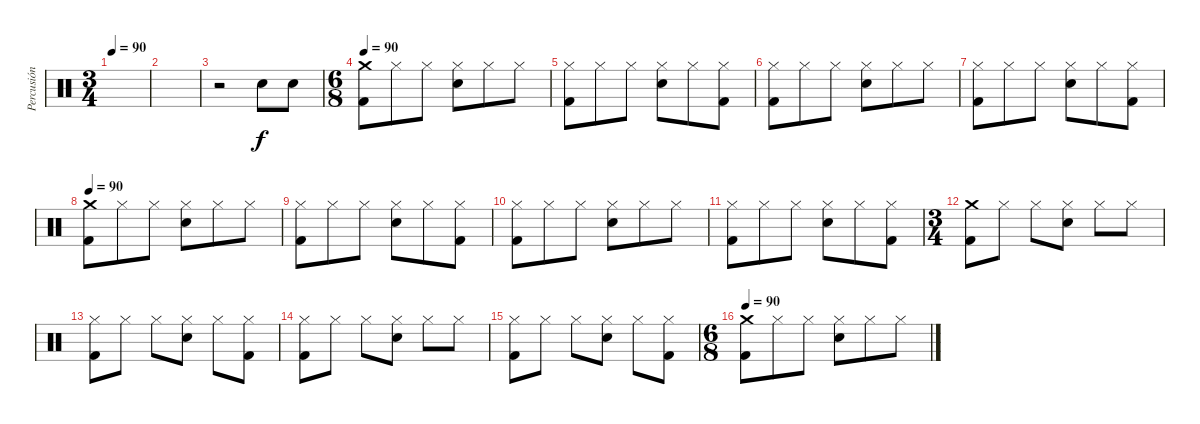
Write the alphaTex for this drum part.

\track ("Percusión" "Percusión") {instrument percussion}
\staff {score}
\articulation defaults
\ts (3 4)
\tempo 90
\clef neutral
\ks c
|
|
r.2 "Electric Snare (hit)".8 "Electric Snare (hit)".8 |
\ts (6 8)
\tempo 90
("Crash medium (hit)" "Kick (hit) 2").8 "Hi-Hat (closed)".8 "Hi-Hat (closed)".8 ("Hi-Hat (closed)" "Snare (hit) 2").8 "Hi-Hat (closed)".8 "Hi-Hat (closed)".8 |
("Hi-Hat (closed)" "Kick (hit) 2").8 "Hi-Hat (closed)".8 "Hi-Hat (closed)".8 ("Hi-Hat (closed)" "Snare (hit) 2").8 "Hi-Hat (closed)".8 ("Hi-Hat (closed)" "Kick (hit) 2").8 |
("Hi-Hat (closed)" "Kick (hit) 2").8 "Hi-Hat (closed)".8 "Hi-Hat (closed)".8 ("Hi-Hat (closed)" "Snare (hit) 2").8 "Hi-Hat (closed)".8 "Hi-Hat (closed)".8 |
("Hi-Hat (closed)" "Kick (hit) 2").8 "Hi-Hat (closed)".8 "Hi-Hat (closed)".8 ("Hi-Hat (closed)" "Snare (hit) 2").8 "Hi-Hat (closed)".8 ("Hi-Hat (closed)" "Kick (hit) 2").8 |
\tempo 90
("Crash medium (hit)" "Kick (hit) 2").8 "Hi-Hat (closed)".8 "Hi-Hat (closed)".8 ("Hi-Hat (closed)" "Snare (hit) 2").8 "Hi-Hat (closed)".8 "Hi-Hat (closed)".8 |
("Hi-Hat (closed)" "Kick (hit) 2").8 "Hi-Hat (closed)".8 "Hi-Hat (closed)".8 ("Hi-Hat (closed)" "Snare (hit) 2").8 "Hi-Hat (closed)".8 ("Hi-Hat (closed)" "Kick (hit) 2").8 |
("Hi-Hat (closed)" "Kick (hit) 2").8 "Hi-Hat (closed)".8 "Hi-Hat (closed)".8 ("Hi-Hat (closed)" "Snare (hit) 2").8 "Hi-Hat (closed)".8 "Hi-Hat (closed)".8 |
("Hi-Hat (closed)" "Kick (hit) 2").8 "Hi-Hat (closed)".8 "Hi-Hat (closed)".8 ("Hi-Hat (closed)" "Snare (hit) 2").8 "Hi-Hat (closed)".8 ("Hi-Hat (closed)" "Kick (hit) 2").8 |
\ts (3 4)
("Crash medium (hit)" "Kick (hit) 2").8 "Hi-Hat (closed)".8 "Hi-Hat (closed)".8 ("Hi-Hat (closed)" "Snare (hit) 2").8 "Hi-Hat (closed)".8 "Hi-Hat (closed)".8 |
("Hi-Hat (closed)" "Kick (hit) 2").8 "Hi-Hat (closed)".8 "Hi-Hat (closed)".8 ("Hi-Hat (closed)" "Snare (hit) 2").8 "Hi-Hat (closed)".8 ("Hi-Hat (closed)" "Kick (hit) 2").8 |
("Hi-Hat (closed)" "Kick (hit) 2").8 "Hi-Hat (closed)".8 "Hi-Hat (closed)".8 ("Hi-Hat (closed)" "Snare (hit) 2").8 "Hi-Hat (closed)".8 "Hi-Hat (closed)".8 |
("Hi-Hat (closed)" "Kick (hit) 2").8 "Hi-Hat (closed)".8 "Hi-Hat (closed)".8 ("Hi-Hat (closed)" "Snare (hit) 2").8 "Hi-Hat (closed)".8 ("Hi-Hat (closed)" "Kick (hit) 2").8 |
\ts (6 8)
\tempo 90
("Crash medium (hit)" "Kick (hit) 2").8 "Hi-Hat (closed)".8 "Hi-Hat (closed)".8 ("Hi-Hat (closed)" "Snare (hit) 2").8 "Hi-Hat (closed)".8 "Hi-Hat (closed)".8
